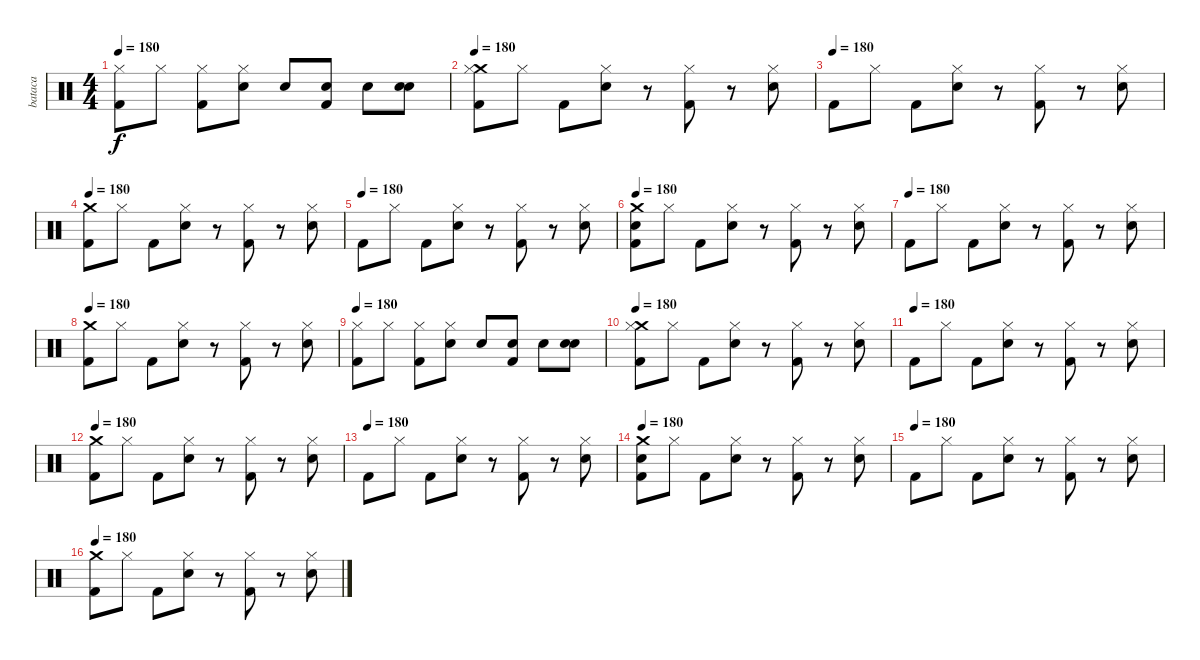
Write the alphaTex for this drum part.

\track ("bataca" "bataca") {instrument percussion}
\staff {score}
\articulation defaults
\ts (4 4)
\tempo 180
\clef neutral
\ks c
("Hi-Hat (closed)" "Kick (hit) 2").8{dy f} "Hi-Hat (closed)".8 ("Hi-Hat (closed)" "Kick (hit) 2").8 ("Hi-Hat (closed)" "Snare (hit) 2").8 "Snare (hit) 2".8 ("Snare (hit) 2" "Kick (hit) 2").8 "Snare (hit) 2".8 ("Snare (hit) 2" "Snare (hit) 2").8 |
\tempo 180
("Crash medium (hit)" "Hi-Hat (closed)" "Kick (hit) 2").8 "Hi-Hat (closed)".8 "Kick (hit) 2".8 ("Hi-Hat (closed)" "Snare (hit) 2").8 r.8 ("Hi-Hat (closed)" "Kick (hit) 2").8 r.8 ("Hi-Hat (closed)" "Snare (hit) 2").8 |
\tempo (180)
"Kick (hit) 2".8 "Hi-Hat (closed)".8 "Kick (hit) 2".8 ("Hi-Hat (closed)" "Snare (hit) 2").8 r.8 ("Hi-Hat (closed)" "Kick (hit) 2").8 r.8 ("Hi-Hat (closed)" "Snare (hit) 2").8 |
\tempo 180
("Crash medium (hit)" "Kick (hit) 2").8 "Hi-Hat (closed)".8 "Kick (hit) 2".8 ("Hi-Hat (closed)" "Snare (hit) 2").8 r.8 ("Hi-Hat (closed)" "Kick (hit) 2").8 r.8 ("Hi-Hat (closed)" "Snare (hit) 2").8 |
\tempo (180)
"Kick (hit) 2".8 "Hi-Hat (closed)".8 "Kick (hit) 2".8 ("Hi-Hat (closed)" "Snare (hit) 2").8 r.8 ("Hi-Hat (closed)" "Kick (hit) 2").8 r.8 ("Hi-Hat (closed)" "Snare (hit) 2").8 |
\tempo 180
("Crash medium (hit)" "Snare (hit) 2" "Kick (hit) 2").8 "Hi-Hat (closed)".8 "Kick (hit) 2".8 ("Hi-Hat (closed)" "Snare (hit) 2").8 r.8 ("Hi-Hat (closed)" "Kick (hit) 2").8 r.8 ("Hi-Hat (closed)" "Snare (hit) 2").8 |
\tempo (180)
"Kick (hit) 2".8 "Hi-Hat (closed)".8 "Kick (hit) 2".8 ("Hi-Hat (closed)" "Snare (hit) 2").8 r.8 ("Hi-Hat (closed)" "Kick (hit) 2").8 r.8 ("Hi-Hat (closed)" "Snare (hit) 2").8 |
\tempo 180
("Crash medium (hit)" "Kick (hit) 2").8 "Hi-Hat (closed)".8 "Kick (hit) 2".8 ("Hi-Hat (closed)" "Snare (hit) 2").8 r.8 ("Hi-Hat (closed)" "Kick (hit) 2").8 r.8 ("Hi-Hat (closed)" "Snare (hit) 2").8 |
\tempo 180
("Hi-Hat (closed)" "Kick (hit) 2").8 "Hi-Hat (closed)".8 ("Hi-Hat (closed)" "Kick (hit) 2").8 ("Hi-Hat (closed)" "Snare (hit) 2").8 "Snare (hit) 2".8 ("Snare (hit) 2" "Kick (hit) 2").8 "Snare (hit) 2".8 ("Snare (hit) 2" "Snare (hit) 2").8 |
\tempo 180
("Crash medium (hit)" "Hi-Hat (closed)" "Kick (hit) 2").8 "Hi-Hat (closed)".8 "Kick (hit) 2".8 ("Hi-Hat (closed)" "Snare (hit) 2").8 r.8 ("Hi-Hat (closed)" "Kick (hit) 2").8 r.8 ("Hi-Hat (closed)" "Snare (hit) 2").8 |
\tempo (180)
"Kick (hit) 2".8 "Hi-Hat (closed)".8 "Kick (hit) 2".8 ("Hi-Hat (closed)" "Snare (hit) 2").8 r.8 ("Hi-Hat (closed)" "Kick (hit) 2").8 r.8 ("Hi-Hat (closed)" "Snare (hit) 2").8 |
\tempo 180
("Crash medium (hit)" "Kick (hit) 2").8 "Hi-Hat (closed)".8 "Kick (hit) 2".8 ("Hi-Hat (closed)" "Snare (hit) 2").8 r.8 ("Hi-Hat (closed)" "Kick (hit) 2").8 r.8 ("Hi-Hat (closed)" "Snare (hit) 2").8 |
\tempo (180)
"Kick (hit) 2".8 "Hi-Hat (closed)".8 "Kick (hit) 2".8 ("Hi-Hat (closed)" "Snare (hit) 2").8 r.8 ("Hi-Hat (closed)" "Kick (hit) 2").8 r.8 ("Hi-Hat (closed)" "Snare (hit) 2").8 |
\tempo 180
("Crash medium (hit)" "Snare (hit) 2" "Kick (hit) 2").8 "Hi-Hat (closed)".8 "Kick (hit) 2".8 ("Hi-Hat (closed)" "Snare (hit) 2").8 r.8 ("Hi-Hat (closed)" "Kick (hit) 2").8 r.8 ("Hi-Hat (closed)" "Snare (hit) 2").8 |
\tempo (180)
"Kick (hit) 2".8 "Hi-Hat (closed)".8 "Kick (hit) 2".8 ("Hi-Hat (closed)" "Snare (hit) 2").8 r.8 ("Hi-Hat (closed)" "Kick (hit) 2").8 r.8 ("Hi-Hat (closed)" "Snare (hit) 2").8 |
\tempo 180
("Crash medium (hit)" "Kick (hit) 2").8 "Hi-Hat (closed)".8 "Kick (hit) 2".8 ("Hi-Hat (closed)" "Snare (hit) 2").8 r.8 ("Hi-Hat (closed)" "Kick (hit) 2").8 r.8 ("Hi-Hat (closed)" "Snare (hit) 2").8
